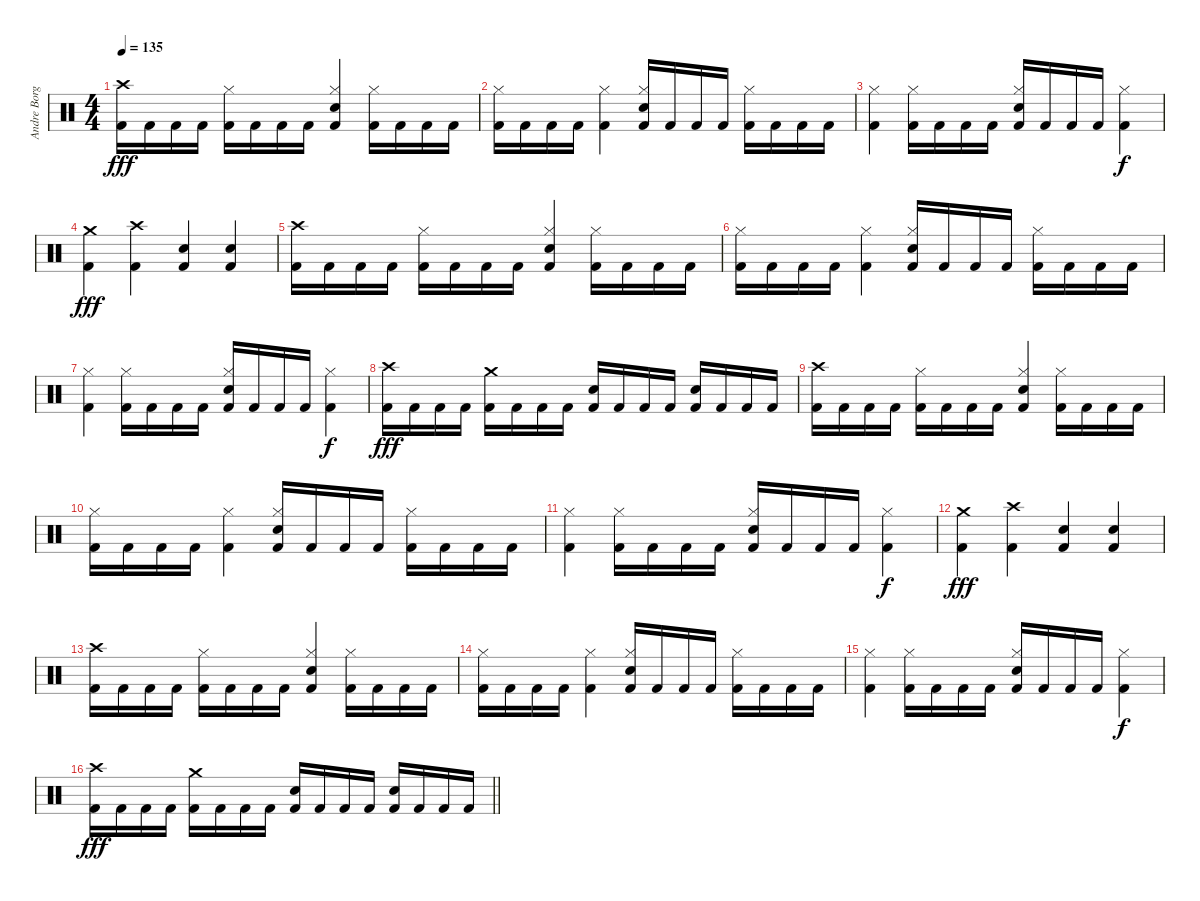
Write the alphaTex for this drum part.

\track ("Andre Borgman" "Andre Borg") {instrument percussion}
\staff {score}
\articulation defaults
\ts (4 4)
\tempo 135
\clef neutral
\ks c
("Crash high (hit)" "Kick (hit) 2").16{dy fff} "Kick (hit) 2".16 "Kick (hit) 2".16 "Kick (hit) 2".16 ("Hi-Hat (closed)" "Kick (hit) 2").16 "Kick (hit) 2".16 "Kick (hit) 2".16 "Kick (hit) 2".16 ("Hi-Hat (closed)" "Snare (hit) 2" "Kick (hit) 2").4 ("Hi-Hat (closed)" "Kick (hit) 2").16 "Kick (hit) 2".16 "Kick (hit) 2".16 "Kick (hit) 2".16 |
("Hi-Hat (closed)" "Kick (hit) 2").16 "Kick (hit) 2".16 "Kick (hit) 2".16 "Kick (hit) 2".16 ("Hi-Hat (closed)" "Kick (hit) 2").4 ("Hi-Hat (closed)" "Snare (hit) 2" "Kick (hit) 2").16 "Kick (hit) 2".16 "Kick (hit) 2".16 "Kick (hit) 2".16 ("Hi-Hat (closed)" "Kick (hit) 2").16 "Kick (hit) 2".16 "Kick (hit) 2".16 "Kick (hit) 2".16 |
("Hi-Hat (closed)" "Kick (hit) 2").4 ("Hi-Hat (closed)" "Kick (hit) 2").16 "Kick (hit) 2".16 "Kick (hit) 2".16 "Kick (hit) 2".16 ("Hi-Hat (closed)" "Snare (hit) 2" "Kick (hit) 2").16 "Kick (hit) 2".16 "Kick (hit) 2".16 "Kick (hit) 2".16 ("Hi-Hat (closed)" "Kick (hit) 2").4{dy f} |
("Crash medium (hit)" "Kick (hit) 2").4{dy fff} ("Crash high (hit)" "Kick (hit) 2").4 ("Snare (hit) 2" "Kick (hit) 2").4 ("Snare (hit) 2" "Kick (hit) 2").4 |
("Crash high (hit)" "Kick (hit) 2").16 "Kick (hit) 2".16 "Kick (hit) 2".16 "Kick (hit) 2".16 ("Hi-Hat (closed)" "Kick (hit) 2").16 "Kick (hit) 2".16 "Kick (hit) 2".16 "Kick (hit) 2".16 ("Hi-Hat (closed)" "Snare (hit) 2" "Kick (hit) 2").4 ("Hi-Hat (closed)" "Kick (hit) 2").16 "Kick (hit) 2".16 "Kick (hit) 2".16 "Kick (hit) 2".16 |
("Hi-Hat (closed)" "Kick (hit) 2").16 "Kick (hit) 2".16 "Kick (hit) 2".16 "Kick (hit) 2".16 ("Hi-Hat (closed)" "Kick (hit) 2").4 ("Hi-Hat (closed)" "Snare (hit) 2" "Kick (hit) 2").16 "Kick (hit) 2".16 "Kick (hit) 2".16 "Kick (hit) 2".16 ("Hi-Hat (closed)" "Kick (hit) 2").16 "Kick (hit) 2".16 "Kick (hit) 2".16 "Kick (hit) 2".16 |
("Hi-Hat (closed)" "Kick (hit) 2").4 ("Hi-Hat (closed)" "Kick (hit) 2").16 "Kick (hit) 2".16 "Kick (hit) 2".16 "Kick (hit) 2".16 ("Hi-Hat (closed)" "Snare (hit) 2" "Kick (hit) 2").16 "Kick (hit) 2".16 "Kick (hit) 2".16 "Kick (hit) 2".16 ("Hi-Hat (closed)" "Kick (hit) 2").4{dy f} |
("Crash high (hit)" "Kick (hit) 2").16{dy fff} "Kick (hit) 2".16 "Kick (hit) 2".16 "Kick (hit) 2".16 ("Crash medium (hit)" "Kick (hit) 2").16 "Kick (hit) 2".16 "Kick (hit) 2".16 "Kick (hit) 2".16 ("Snare (hit) 2" "Kick (hit) 2").16 "Kick (hit) 2".16 "Kick (hit) 2".16 "Kick (hit) 2".16 ("Snare (hit) 2" "Kick (hit) 2").16 "Kick (hit) 2".16 "Kick (hit) 2".16 "Kick (hit) 2".16 |
("Crash high (hit)" "Kick (hit) 2").16 "Kick (hit) 2".16 "Kick (hit) 2".16 "Kick (hit) 2".16 ("Hi-Hat (closed)" "Kick (hit) 2").16 "Kick (hit) 2".16 "Kick (hit) 2".16 "Kick (hit) 2".16 ("Hi-Hat (closed)" "Snare (hit) 2" "Kick (hit) 2").4 ("Hi-Hat (closed)" "Kick (hit) 2").16 "Kick (hit) 2".16 "Kick (hit) 2".16 "Kick (hit) 2".16 |
("Hi-Hat (closed)" "Kick (hit) 2").16 "Kick (hit) 2".16 "Kick (hit) 2".16 "Kick (hit) 2".16 ("Hi-Hat (closed)" "Kick (hit) 2").4 ("Hi-Hat (closed)" "Snare (hit) 2" "Kick (hit) 2").16 "Kick (hit) 2".16 "Kick (hit) 2".16 "Kick (hit) 2".16 ("Hi-Hat (closed)" "Kick (hit) 2").16 "Kick (hit) 2".16 "Kick (hit) 2".16 "Kick (hit) 2".16 |
("Hi-Hat (closed)" "Kick (hit) 2").4 ("Hi-Hat (closed)" "Kick (hit) 2").16 "Kick (hit) 2".16 "Kick (hit) 2".16 "Kick (hit) 2".16 ("Hi-Hat (closed)" "Snare (hit) 2" "Kick (hit) 2").16 "Kick (hit) 2".16 "Kick (hit) 2".16 "Kick (hit) 2".16 ("Hi-Hat (closed)" "Kick (hit) 2").4{dy f} |
("Crash medium (hit)" "Kick (hit) 2").4{dy fff} ("Crash high (hit)" "Kick (hit) 2").4 ("Snare (hit) 2" "Kick (hit) 2").4 ("Snare (hit) 2" "Kick (hit) 2").4 |
("Crash high (hit)" "Kick (hit) 2").16 "Kick (hit) 2".16 "Kick (hit) 2".16 "Kick (hit) 2".16 ("Hi-Hat (closed)" "Kick (hit) 2").16 "Kick (hit) 2".16 "Kick (hit) 2".16 "Kick (hit) 2".16 ("Hi-Hat (closed)" "Snare (hit) 2" "Kick (hit) 2").4 ("Hi-Hat (closed)" "Kick (hit) 2").16 "Kick (hit) 2".16 "Kick (hit) 2".16 "Kick (hit) 2".16 |
("Hi-Hat (closed)" "Kick (hit) 2").16 "Kick (hit) 2".16 "Kick (hit) 2".16 "Kick (hit) 2".16 ("Hi-Hat (closed)" "Kick (hit) 2").4 ("Hi-Hat (closed)" "Snare (hit) 2" "Kick (hit) 2").16 "Kick (hit) 2".16 "Kick (hit) 2".16 "Kick (hit) 2".16 ("Hi-Hat (closed)" "Kick (hit) 2").16 "Kick (hit) 2".16 "Kick (hit) 2".16 "Kick (hit) 2".16 |
("Hi-Hat (closed)" "Kick (hit) 2").4 ("Hi-Hat (closed)" "Kick (hit) 2").16 "Kick (hit) 2".16 "Kick (hit) 2".16 "Kick (hit) 2".16 ("Hi-Hat (closed)" "Snare (hit) 2" "Kick (hit) 2").16 "Kick (hit) 2".16 "Kick (hit) 2".16 "Kick (hit) 2".16 ("Hi-Hat (closed)" "Kick (hit) 2").4{dy f} |
\barLineRight lightlight
("Crash high (hit)" "Kick (hit) 2").16{dy fff} "Kick (hit) 2".16 "Kick (hit) 2".16 "Kick (hit) 2".16 ("Crash medium (hit)" "Kick (hit) 2").16 "Kick (hit) 2".16 "Kick (hit) 2".16 "Kick (hit) 2".16 ("Snare (hit) 2" "Kick (hit) 2").16 "Kick (hit) 2".16 "Kick (hit) 2".16 "Kick (hit) 2".16 ("Snare (hit) 2" "Kick (hit) 2").16 "Kick (hit) 2".16 "Kick (hit) 2".16 "Kick (hit) 2".16
